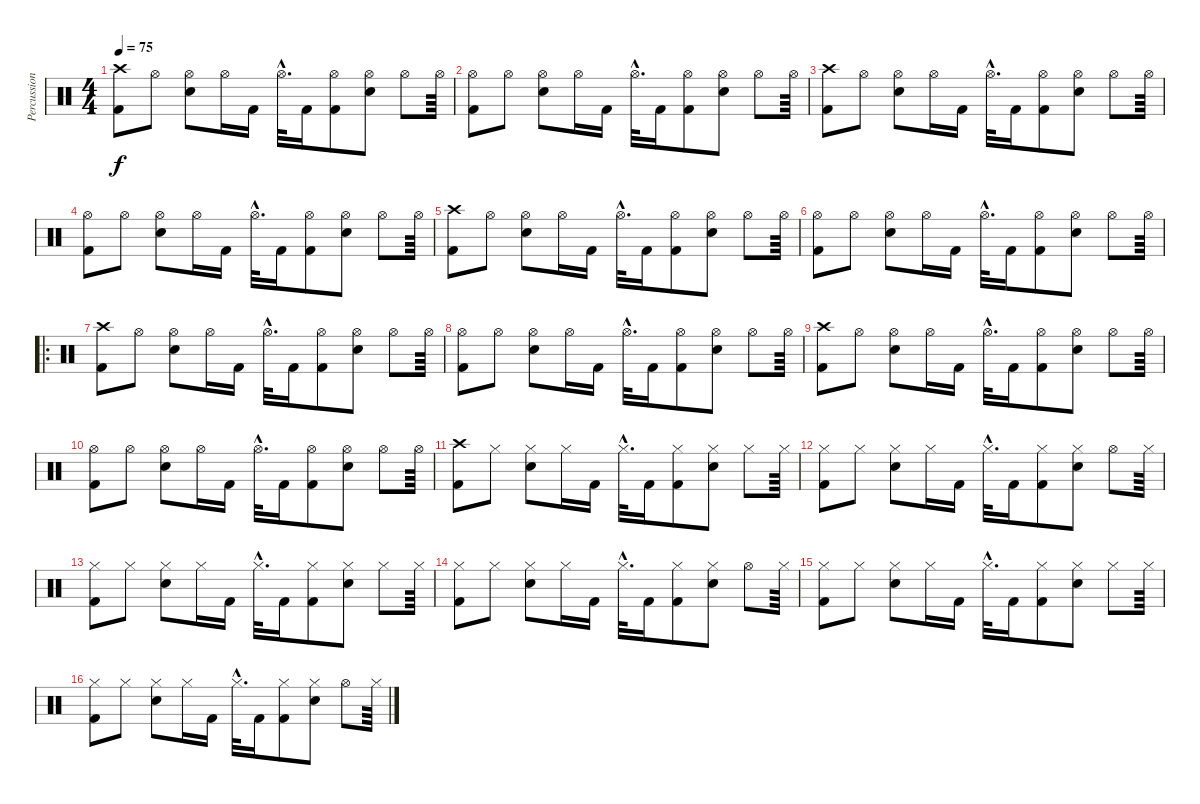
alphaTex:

\track ("Percussion" "Percussion") {instrument percussion}
\staff {score}
\articulation defaults
\ts (4 4)
\tempo 75
\clef neutral
\ks c
("Crash high (hit)" "Kick (hit) 2").8{dy f} "Hi-Hat (open)".8 ("Electric Snare (hit)" "Hi-Hat (open)").8 "Hi-Hat (open)".16 "Kick (hit) 2".16 "Hi-Hat (open)"{hac}.32{d} "Kick (hit) 2".16 ("Kick (hit) 2" "Hi-Hat (open)").8 ("Hi-Hat (open)" "Electric Snare (hit)").8 "Hi-Hat (open)".8 "Hi-Hat (open)".64 |
("Hi-Hat (open)" "Kick (hit) 2").8 "Hi-Hat (open)".8 ("Electric Snare (hit)" "Hi-Hat (open)").8 "Hi-Hat (open)".16 "Kick (hit) 2".16 "Hi-Hat (open)"{hac}.32{d} "Kick (hit) 2".16 ("Kick (hit) 2" "Hi-Hat (open)").8 ("Hi-Hat (open)" "Electric Snare (hit)").8 "Hi-Hat (open)".8 "Hi-Hat (open)".64 |
("Crash high (hit)" "Kick (hit) 2").8 "Hi-Hat (open)".8 ("Electric Snare (hit)" "Hi-Hat (open)").8 "Hi-Hat (open)".16 "Kick (hit) 2".16 "Hi-Hat (open)"{hac}.32{d} "Kick (hit) 2".16 ("Kick (hit) 2" "Hi-Hat (open)").8 ("Hi-Hat (open)" "Electric Snare (hit)").8 "Hi-Hat (open)".8 "Hi-Hat (open)".64 |
("Hi-Hat (open)" "Kick (hit) 2").8 "Hi-Hat (open)".8 ("Electric Snare (hit)" "Hi-Hat (open)").8 "Hi-Hat (open)".16 "Kick (hit) 2".16 "Hi-Hat (open)"{hac}.32{d} "Kick (hit) 2".16 ("Kick (hit) 2" "Hi-Hat (open)").8 ("Hi-Hat (open)" "Electric Snare (hit)").8 "Hi-Hat (open)".8 "Hi-Hat (open)".64 |
("Crash high (hit)" "Kick (hit) 2").8 "Hi-Hat (open)".8 ("Electric Snare (hit)" "Hi-Hat (open)").8 "Hi-Hat (open)".16 "Kick (hit) 2".16 "Hi-Hat (open)"{hac}.32{d} "Kick (hit) 2".16 ("Kick (hit) 2" "Hi-Hat (open)").8 ("Hi-Hat (open)" "Electric Snare (hit)").8 "Hi-Hat (open)".8 "Hi-Hat (open)".64 |
("Hi-Hat (open)" "Kick (hit) 2").8 "Hi-Hat (open)".8 ("Electric Snare (hit)" "Hi-Hat (open)").8 "Hi-Hat (open)".16 "Kick (hit) 2".16 "Hi-Hat (open)"{hac}.32{d} "Kick (hit) 2".16 ("Kick (hit) 2" "Hi-Hat (open)").8 ("Hi-Hat (open)" "Electric Snare (hit)").8 "Hi-Hat (open)".8 "Hi-Hat (open)".64 |
\ro
("Crash high (hit)" "Kick (hit) 2").8 "Hi-Hat (open)".8 ("Electric Snare (hit)" "Hi-Hat (open)").8 "Hi-Hat (open)".16 "Kick (hit) 2".16 "Hi-Hat (open)"{hac}.32{d} "Kick (hit) 2".16 ("Kick (hit) 2" "Hi-Hat (open)").8 ("Hi-Hat (open)" "Electric Snare (hit)").8 "Hi-Hat (open)".8 "Hi-Hat (open)".64 |
("Hi-Hat (open)" "Kick (hit) 2").8 "Hi-Hat (open)".8 ("Electric Snare (hit)" "Hi-Hat (open)").8 "Hi-Hat (open)".16 "Kick (hit) 2".16 "Hi-Hat (open)"{hac}.32{d} "Kick (hit) 2".16 ("Kick (hit) 2" "Hi-Hat (open)").8 ("Hi-Hat (open)" "Electric Snare (hit)").8 "Hi-Hat (open)".8 "Hi-Hat (open)".64 |
("Crash high (hit)" "Kick (hit) 2").8 "Hi-Hat (open)".8 ("Electric Snare (hit)" "Hi-Hat (open)").8 "Hi-Hat (open)".16 "Kick (hit) 2".16 "Hi-Hat (open)"{hac}.32{d} "Kick (hit) 2".16 ("Kick (hit) 2" "Hi-Hat (open)").8 ("Hi-Hat (open)" "Electric Snare (hit)").8 "Hi-Hat (open)".8 "Hi-Hat (open)".64 |
("Hi-Hat (open)" "Kick (hit) 2").8 "Hi-Hat (open)".8 ("Electric Snare (hit)" "Hi-Hat (open)").8 "Hi-Hat (open)".16 "Kick (hit) 2".16 "Hi-Hat (open)"{hac}.32{d} "Kick (hit) 2".16 ("Kick (hit) 2" "Hi-Hat (open)").8 ("Hi-Hat (open)" "Electric Snare (hit)").8 "Hi-Hat (open)".8 "Hi-Hat (open)".64 |
("Crash high (hit)" "Kick (hit) 2").8 "Hi-Hat (closed)".8 ("Electric Snare (hit)" "Hi-Hat (closed)").8 "Hi-Hat (closed)".16 "Kick (hit) 2".16 "Hi-Hat (closed)"{hac}.32{d} "Kick (hit) 2".16 ("Kick (hit) 2" "Hi-Hat (closed)").8 ("Hi-Hat (closed)" "Electric Snare (hit)").8 "Hi-Hat (closed)".8 "Hi-Hat (closed)".64 |
("Hi-Hat (closed)" "Kick (hit) 2").8 "Hi-Hat (closed)".8 ("Electric Snare (hit)" "Hi-Hat (closed)").8 "Hi-Hat (closed)".16 "Kick (hit) 2".16 "Hi-Hat (closed)"{hac}.32{d} "Kick (hit) 2".16 ("Kick (hit) 2" "Hi-Hat (closed)").8 ("Hi-Hat (closed)" "Electric Snare (hit)").8 "Hi-Hat (open)".8 "Hi-Hat (closed)".64 |
("Hi-Hat (closed)" "Kick (hit) 2").8 "Hi-Hat (closed)".8 ("Electric Snare (hit)" "Hi-Hat (closed)").8 "Hi-Hat (closed)".16 "Kick (hit) 2".16 "Hi-Hat (closed)"{hac}.32{d} "Kick (hit) 2".16 ("Kick (hit) 2" "Hi-Hat (closed)").8 ("Hi-Hat (closed)" "Electric Snare (hit)").8 "Hi-Hat (closed)".8 "Hi-Hat (closed)".64 |
("Hi-Hat (closed)" "Kick (hit) 2").8 "Hi-Hat (closed)".8 ("Electric Snare (hit)" "Hi-Hat (closed)").8 "Hi-Hat (closed)".16 "Kick (hit) 2".16 "Hi-Hat (closed)"{hac}.32{d} "Kick (hit) 2".16 ("Kick (hit) 2" "Hi-Hat (closed)").8 ("Hi-Hat (closed)" "Electric Snare (hit)").8 "Hi-Hat (open)".8 "Hi-Hat (closed)".64 |
("Hi-Hat (closed)" "Kick (hit) 2").8 "Hi-Hat (closed)".8 ("Electric Snare (hit)" "Hi-Hat (closed)").8 "Hi-Hat (closed)".16 "Kick (hit) 2".16 "Hi-Hat (closed)"{hac}.32{d} "Kick (hit) 2".16 ("Kick (hit) 2" "Hi-Hat (closed)").8 ("Hi-Hat (closed)" "Electric Snare (hit)").8 "Hi-Hat (closed)".8 "Hi-Hat (closed)".64 |
("Hi-Hat (closed)" "Kick (hit) 2").8 "Hi-Hat (closed)".8 ("Electric Snare (hit)" "Hi-Hat (closed)").8 "Hi-Hat (closed)".16 "Kick (hit) 2".16 "Hi-Hat (closed)"{hac}.32{d} "Kick (hit) 2".16 ("Kick (hit) 2" "Hi-Hat (closed)").8 ("Hi-Hat (closed)" "Electric Snare (hit)").8 "Hi-Hat (open)".8 "Hi-Hat (closed)".64
